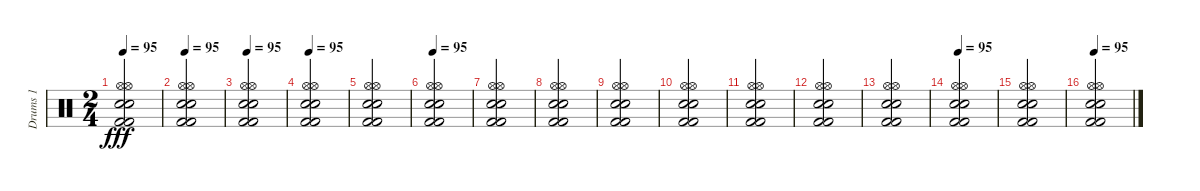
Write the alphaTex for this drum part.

\track ("Drums 1" "Drums 1") {instrument percussion}
\staff {score}
\articulation defaults
\ts (2 4)
\tempo 95
\clef neutral
\ks c
("Snare (hit) 2" "Hi-Hat (open)" "Kick (hit) 2" "Hi-Hat (open)" "Snare (hit) 2" "Kick (hit) 2").2{dy fff} |
\tempo 95
("Snare (hit) 2" "Hi-Hat (open)" "Kick (hit) 2" "Hi-Hat (open)" "Snare (hit) 2" "Kick (hit) 2").2 |
\tempo 95
("Snare (hit) 2" "Hi-Hat (open)" "Kick (hit) 2" "Hi-Hat (open)" "Snare (hit) 2" "Kick (hit) 2").2 |
\tempo 95
("Snare (hit) 2" "Hi-Hat (open)" "Kick (hit) 2" "Hi-Hat (open)" "Snare (hit) 2" "Kick (hit) 2").2 |
("Snare (hit) 2" "Hi-Hat (open)" "Kick (hit) 2" "Hi-Hat (open)" "Snare (hit) 2" "Kick (hit) 2").2 |
\tempo 95
("Snare (hit) 2" "Hi-Hat (open)" "Kick (hit) 2" "Hi-Hat (open)" "Snare (hit) 2" "Kick (hit) 2").2 |
("Snare (hit) 2" "Hi-Hat (open)" "Kick (hit) 2" "Hi-Hat (open)" "Snare (hit) 2" "Kick (hit) 2").2 |
("Snare (hit) 2" "Hi-Hat (open)" "Kick (hit) 2" "Hi-Hat (open)" "Snare (hit) 2" "Kick (hit) 2").2 |
("Snare (hit) 2" "Hi-Hat (open)" "Kick (hit) 2" "Hi-Hat (open)" "Snare (hit) 2" "Kick (hit) 2").2 |
("Snare (hit) 2" "Hi-Hat (open)" "Kick (hit) 2" "Hi-Hat (open)" "Snare (hit) 2" "Kick (hit) 2").2 |
("Snare (hit) 2" "Hi-Hat (open)" "Kick (hit) 2" "Hi-Hat (open)" "Snare (hit) 2" "Kick (hit) 2").2 |
("Snare (hit) 2" "Hi-Hat (open)" "Kick (hit) 2" "Hi-Hat (open)" "Snare (hit) 2" "Kick (hit) 2").2 |
("Snare (hit) 2" "Hi-Hat (open)" "Kick (hit) 2" "Hi-Hat (open)" "Snare (hit) 2" "Kick (hit) 2").2 |
\tempo 95
("Snare (hit) 2" "Hi-Hat (open)" "Kick (hit) 2" "Hi-Hat (open)" "Snare (hit) 2" "Kick (hit) 2").2 |
("Snare (hit) 2" "Hi-Hat (open)" "Kick (hit) 2" "Hi-Hat (open)" "Snare (hit) 2" "Kick (hit) 2").2 |
\tempo 95
("Snare (hit) 2" "Hi-Hat (open)" "Kick (hit) 2" "Hi-Hat (open)" "Snare (hit) 2" "Kick (hit) 2").2
